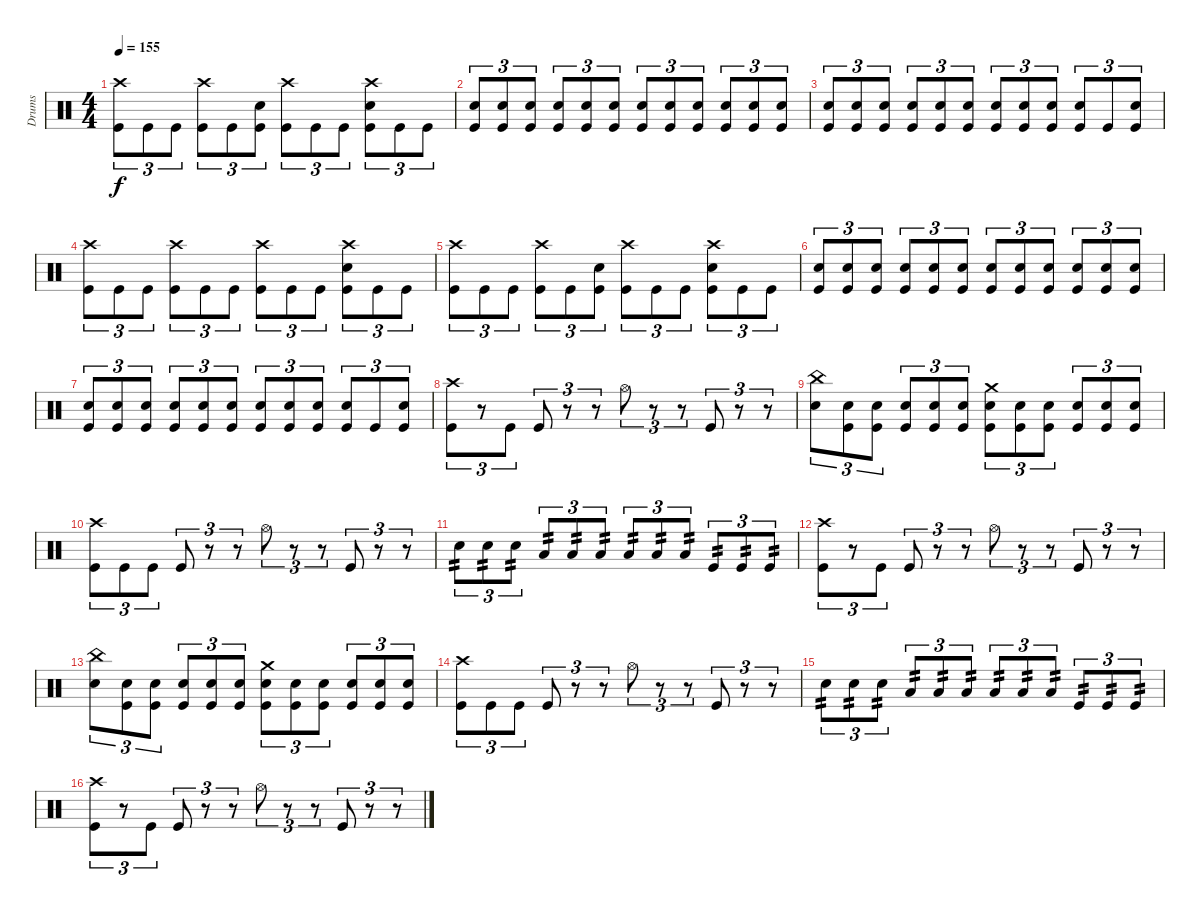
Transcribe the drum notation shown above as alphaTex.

\track ("Drums" "Drums") {instrument percussion}
\staff {score}
\articulation defaults
\ts (4 4)
\tempo 155
\clef neutral
\ks c
("Crash high (hit)" "Kick (hit)").8{tu (3 2) dy f} "Kick (hit)".8{tu (3 2)} "Kick (hit)".8{tu (3 2)} ("Crash high (hit)" "Kick (hit)").8{tu (3 2)} "Kick (hit)".8{tu (3 2)} ("Electric Snare (hit)" "Kick (hit)").8{tu (3 2)} ("Crash high (hit)" "Kick (hit)").8{tu (3 2)} "Kick (hit)".8{tu (3 2)} "Kick (hit)".8{tu (3 2)} ("Crash high (hit)" "Electric Snare (hit)" "Kick (hit)").8{tu (3 2)} "Kick (hit)".8{tu (3 2)} "Kick (hit)".8{tu (3 2)} |
("Electric Snare (hit)" "Kick (hit)").8{tu (3 2)} ("Electric Snare (hit)" "Kick (hit)").8{tu (3 2)} ("Electric Snare (hit)" "Kick (hit)").8{tu (3 2)} ("Electric Snare (hit)" "Kick (hit)").8{tu (3 2)} ("Electric Snare (hit)" "Kick (hit)").8{tu (3 2)} ("Electric Snare (hit)" "Kick (hit)").8{tu (3 2)} ("Electric Snare (hit)" "Kick (hit)").8{tu (3 2)} ("Electric Snare (hit)" "Kick (hit)").8{tu (3 2)} ("Electric Snare (hit)" "Kick (hit)").8{tu (3 2)} ("Electric Snare (hit)" "Kick (hit)").8{tu (3 2)} ("Electric Snare (hit)" "Kick (hit)").8{tu (3 2)} ("Electric Snare (hit)" "Kick (hit)").8{tu (3 2)} |
("Electric Snare (hit)" "Kick (hit)").8{tu (3 2)} ("Electric Snare (hit)" "Kick (hit)").8{tu (3 2)} ("Electric Snare (hit)" "Kick (hit)").8{tu (3 2)} ("Electric Snare (hit)" "Kick (hit)").8{tu (3 2)} ("Electric Snare (hit)" "Kick (hit)").8{tu (3 2)} ("Electric Snare (hit)" "Kick (hit)").8{tu (3 2)} ("Electric Snare (hit)" "Kick (hit)").8{tu (3 2)} ("Electric Snare (hit)" "Kick (hit)").8{tu (3 2)} ("Electric Snare (hit)" "Kick (hit)").8{tu (3 2)} ("Electric Snare (hit)" "Kick (hit)").8{tu (3 2)} "Kick (hit)".8{tu (3 2)} ("Electric Snare (hit)" "Kick (hit)").8{tu (3 2)} |
("Crash high (hit)" "Kick (hit)").8{tu (3 2)} "Kick (hit)".8{tu (3 2)} "Kick (hit)".8{tu (3 2)} ("Crash high (hit)" "Kick (hit)").8{tu (3 2)} "Kick (hit)".8{tu (3 2)} "Kick (hit)".8{tu (3 2)} ("Crash high (hit)" "Kick (hit)").8{tu (3 2)} "Kick (hit)".8{tu (3 2)} "Kick (hit)".8{tu (3 2)} ("Crash high (hit)" "Electric Snare (hit)" "Kick (hit)").8{tu (3 2)} "Kick (hit)".8{tu (3 2)} "Kick (hit)".8{tu (3 2)} |
("Crash high (hit)" "Kick (hit)").8{tu (3 2)} "Kick (hit)".8{tu (3 2)} "Kick (hit)".8{tu (3 2)} ("Crash high (hit)" "Kick (hit)").8{tu (3 2)} "Kick (hit)".8{tu (3 2)} ("Electric Snare (hit)" "Kick (hit)").8{tu (3 2)} ("Crash high (hit)" "Kick (hit)").8{tu (3 2)} "Kick (hit)".8{tu (3 2)} "Kick (hit)".8{tu (3 2)} ("Crash high (hit)" "Electric Snare (hit)" "Kick (hit)").8{tu (3 2)} "Kick (hit)".8{tu (3 2)} "Kick (hit)".8{tu (3 2)} |
("Electric Snare (hit)" "Kick (hit)").8{tu (3 2)} ("Electric Snare (hit)" "Kick (hit)").8{tu (3 2)} ("Electric Snare (hit)" "Kick (hit)").8{tu (3 2)} ("Electric Snare (hit)" "Kick (hit)").8{tu (3 2)} ("Electric Snare (hit)" "Kick (hit)").8{tu (3 2)} ("Electric Snare (hit)" "Kick (hit)").8{tu (3 2)} ("Electric Snare (hit)" "Kick (hit)").8{tu (3 2)} ("Electric Snare (hit)" "Kick (hit)").8{tu (3 2)} ("Electric Snare (hit)" "Kick (hit)").8{tu (3 2)} ("Electric Snare (hit)" "Kick (hit)").8{tu (3 2)} ("Electric Snare (hit)" "Kick (hit)").8{tu (3 2)} ("Electric Snare (hit)" "Kick (hit)").8{tu (3 2)} |
("Electric Snare (hit)" "Kick (hit)").8{tu (3 2)} ("Electric Snare (hit)" "Kick (hit)").8{tu (3 2)} ("Electric Snare (hit)" "Kick (hit)").8{tu (3 2)} ("Electric Snare (hit)" "Kick (hit)").8{tu (3 2)} ("Electric Snare (hit)" "Kick (hit)").8{tu (3 2)} ("Electric Snare (hit)" "Kick (hit)").8{tu (3 2)} ("Electric Snare (hit)" "Kick (hit)").8{tu (3 2)} ("Electric Snare (hit)" "Kick (hit)").8{tu (3 2)} ("Electric Snare (hit)" "Kick (hit)").8{tu (3 2)} ("Electric Snare (hit)" "Kick (hit)").8{tu (3 2)} "Kick (hit)".8{tu (3 2)} ("Electric Snare (hit)" "Kick (hit)").8{tu (3 2)} |
("Crash high (hit)" "Kick (hit)").8{tu (3 2)} r.8{tu (3 2)} "Kick (hit)".8{tu (3 2)} "Kick (hit)".8{tu (3 2)} r.8{tu (3 2)} r.8{tu (3 2)} "Hi-Hat (open)".8{tu (3 2)} r.8{tu (3 2)} r.8{tu (3 2)} "Kick (hit)".8{tu (3 2)} r.8{tu (3 2)} r.8{tu (3 2)} |
("China (hit)" "Electric Snare (hit)").8{tu (3 2)} ("Electric Snare (hit)" "Kick (hit)").8{tu (3 2)} ("Electric Snare (hit)" "Kick (hit)").8{tu (3 2)} ("Electric Snare (hit)" "Kick (hit)").8{tu (3 2)} ("Electric Snare (hit)" "Kick (hit)").8{tu (3 2)} ("Electric Snare (hit)" "Kick (hit)").8{tu (3 2)} ("Crash medium (hit)" "Electric Snare (hit)" "Kick (hit)").8{tu (3 2)} ("Electric Snare (hit)" "Kick (hit)").8{tu (3 2)} ("Electric Snare (hit)" "Kick (hit)").8{tu (3 2)} ("Electric Snare (hit)" "Kick (hit)").8{tu (3 2)} ("Electric Snare (hit)" "Kick (hit)").8{tu (3 2)} ("Electric Snare (hit)" "Kick (hit)").8{tu (3 2)} |
("Crash high (hit)" "Kick (hit)").8{tu (3 2)} "Kick (hit)".8{tu (3 2)} "Kick (hit)".8{tu (3 2)} "Kick (hit)".8{tu (3 2)} r.8{tu (3 2)} r.8{tu (3 2)} "Hi-Hat (open)".8{tu (3 2)} r.8{tu (3 2)} r.8{tu (3 2)} "Kick (hit)".8{tu (3 2)} r.8{tu (3 2)} r.8{tu (3 2)} |
"Electric Snare (hit)".8{tu (3 2) tp 2} "Electric Snare (hit)".8{tu (3 2) tp 2} "Electric Snare (hit)".8{tu (3 2) tp 2} "Low Tom (hit)".8{tu (3 2) tp 2} "Low Tom (hit)".8{tu (3 2) tp 2} "Low Tom (hit)".8{tu (3 2) tp 2} "Low Floor Tom (hit)".8{tu (3 2) tp 2} "Low Floor Tom (hit)".8{tu (3 2) tp 2} "Low Floor Tom (hit)".8{tu (3 2) tp 2} "Kick (hit)".8{tu (3 2) tp 2} "Kick (hit)".8{tu (3 2) tp 2} "Kick (hit)".8{tu (3 2) tp 2} |
("Crash high (hit)" "Kick (hit)").8{tu (3 2)} r.8{tu (3 2)} "Kick (hit)".8{tu (3 2)} "Kick (hit)".8{tu (3 2)} r.8{tu (3 2)} r.8{tu (3 2)} "Hi-Hat (open)".8{tu (3 2)} r.8{tu (3 2)} r.8{tu (3 2)} "Kick (hit)".8{tu (3 2)} r.8{tu (3 2)} r.8{tu (3 2)} |
("China (hit)" "Electric Snare (hit)").8{tu (3 2)} ("Electric Snare (hit)" "Kick (hit)").8{tu (3 2)} ("Electric Snare (hit)" "Kick (hit)").8{tu (3 2)} ("Electric Snare (hit)" "Kick (hit)").8{tu (3 2)} ("Electric Snare (hit)" "Kick (hit)").8{tu (3 2)} ("Electric Snare (hit)" "Kick (hit)").8{tu (3 2)} ("Crash medium (hit)" "Electric Snare (hit)" "Kick (hit)").8{tu (3 2)} ("Electric Snare (hit)" "Kick (hit)").8{tu (3 2)} ("Electric Snare (hit)" "Kick (hit)").8{tu (3 2)} ("Electric Snare (hit)" "Kick (hit)").8{tu (3 2)} ("Electric Snare (hit)" "Kick (hit)").8{tu (3 2)} ("Electric Snare (hit)" "Kick (hit)").8{tu (3 2)} |
("Crash high (hit)" "Kick (hit)").8{tu (3 2)} "Kick (hit)".8{tu (3 2)} "Kick (hit)".8{tu (3 2)} "Kick (hit)".8{tu (3 2)} r.8{tu (3 2)} r.8{tu (3 2)} "Hi-Hat (open)".8{tu (3 2)} r.8{tu (3 2)} r.8{tu (3 2)} "Kick (hit)".8{tu (3 2)} r.8{tu (3 2)} r.8{tu (3 2)} |
"Electric Snare (hit)".8{tu (3 2) tp 2} "Electric Snare (hit)".8{tu (3 2) tp 2} "Electric Snare (hit)".8{tu (3 2) tp 2} "Low Tom (hit)".8{tu (3 2) tp 2} "Low Tom (hit)".8{tu (3 2) tp 2} "Low Tom (hit)".8{tu (3 2) tp 2} "Low Floor Tom (hit)".8{tu (3 2) tp 2} "Low Floor Tom (hit)".8{tu (3 2) tp 2} "Low Floor Tom (hit)".8{tu (3 2) tp 2} "Kick (hit)".8{tu (3 2) tp 2} "Kick (hit)".8{tu (3 2) tp 2} "Kick (hit)".8{tu (3 2) tp 2} |
("Crash high (hit)" "Kick (hit)").8{tu (3 2)} r.8{tu (3 2)} "Kick (hit)".8{tu (3 2)} "Kick (hit)".8{tu (3 2)} r.8{tu (3 2)} r.8{tu (3 2)} "Hi-Hat (open)".8{tu (3 2)} r.8{tu (3 2)} r.8{tu (3 2)} "Kick (hit)".8{tu (3 2)} r.8{tu (3 2)} r.8{tu (3 2)}
